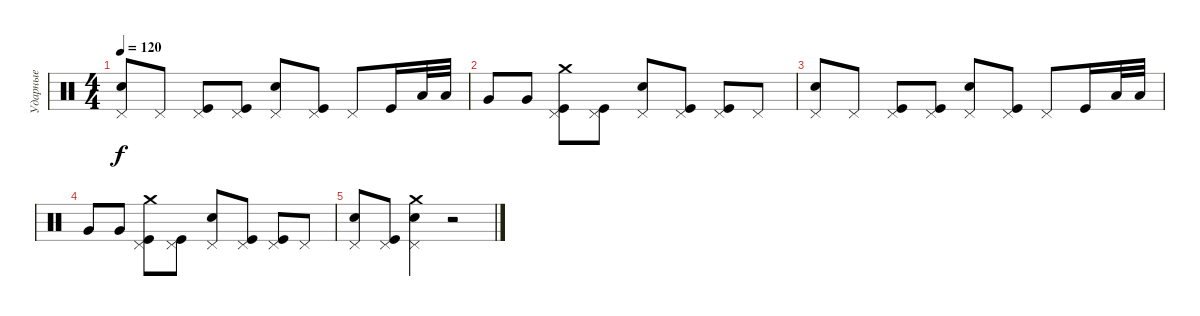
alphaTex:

\track ("Ударные" "Ударные") {instrument percussion}
\staff {score}
\articulation defaults
\ts (4 4)
\tempo 120
\clef neutral
\ks c
("Electric Snare (hit)" "Pedal Hi-Hat (hit)").8{dy f} "Pedal Hi-Hat (hit)".8 ("Kick (hit)" "Pedal Hi-Hat (hit)").8 ("Kick (hit)" "Pedal Hi-Hat (hit)").8 ("Electric Snare (hit)" "Pedal Hi-Hat (hit)").8 ("Kick (hit)" "Pedal Hi-Hat (hit)").8 "Pedal Hi-Hat (hit)".8 "Kick (hit)".16 "Low Tom (hit)".32 "Low Tom (hit)".32 |
"Very Low Tom (hit)".8 "Very Low Tom (hit)".8 ("Kick (hit)" "Pedal Hi-Hat (hit)" "Crash medium (hit)").8 ("Kick (hit)" "Pedal Hi-Hat (hit)").8 ("Electric Snare (hit)" "Pedal Hi-Hat (hit)").8 ("Kick (hit)" "Pedal Hi-Hat (hit)").8 ("Kick (hit)" "Pedal Hi-Hat (hit)").8 "Pedal Hi-Hat (hit)".8 |
("Electric Snare (hit)" "Pedal Hi-Hat (hit)").8 "Pedal Hi-Hat (hit)".8 ("Kick (hit)" "Pedal Hi-Hat (hit)").8 ("Kick (hit)" "Pedal Hi-Hat (hit)").8 ("Electric Snare (hit)" "Pedal Hi-Hat (hit)").8 ("Kick (hit)" "Pedal Hi-Hat (hit)").8 "Pedal Hi-Hat (hit)".8 "Kick (hit)".16 "Low Tom (hit)".32 "Low Tom (hit)".32 |
"Very Low Tom (hit)".8 "Very Low Tom (hit)".8 ("Kick (hit)" "Pedal Hi-Hat (hit)" "Crash medium (hit)").8 ("Kick (hit)" "Pedal Hi-Hat (hit)").8 ("Electric Snare (hit)" "Pedal Hi-Hat (hit)").8 ("Kick (hit)" "Pedal Hi-Hat (hit)").8 ("Kick (hit)" "Pedal Hi-Hat (hit)").8 "Pedal Hi-Hat (hit)".8 |
("Electric Snare (hit)" "Pedal Hi-Hat (hit)").8 ("Kick (hit)" "Pedal Hi-Hat (hit)").8 ("Electric Snare (hit)" "Pedal Hi-Hat (hit)" "Crash medium (hit)").4 r.2
